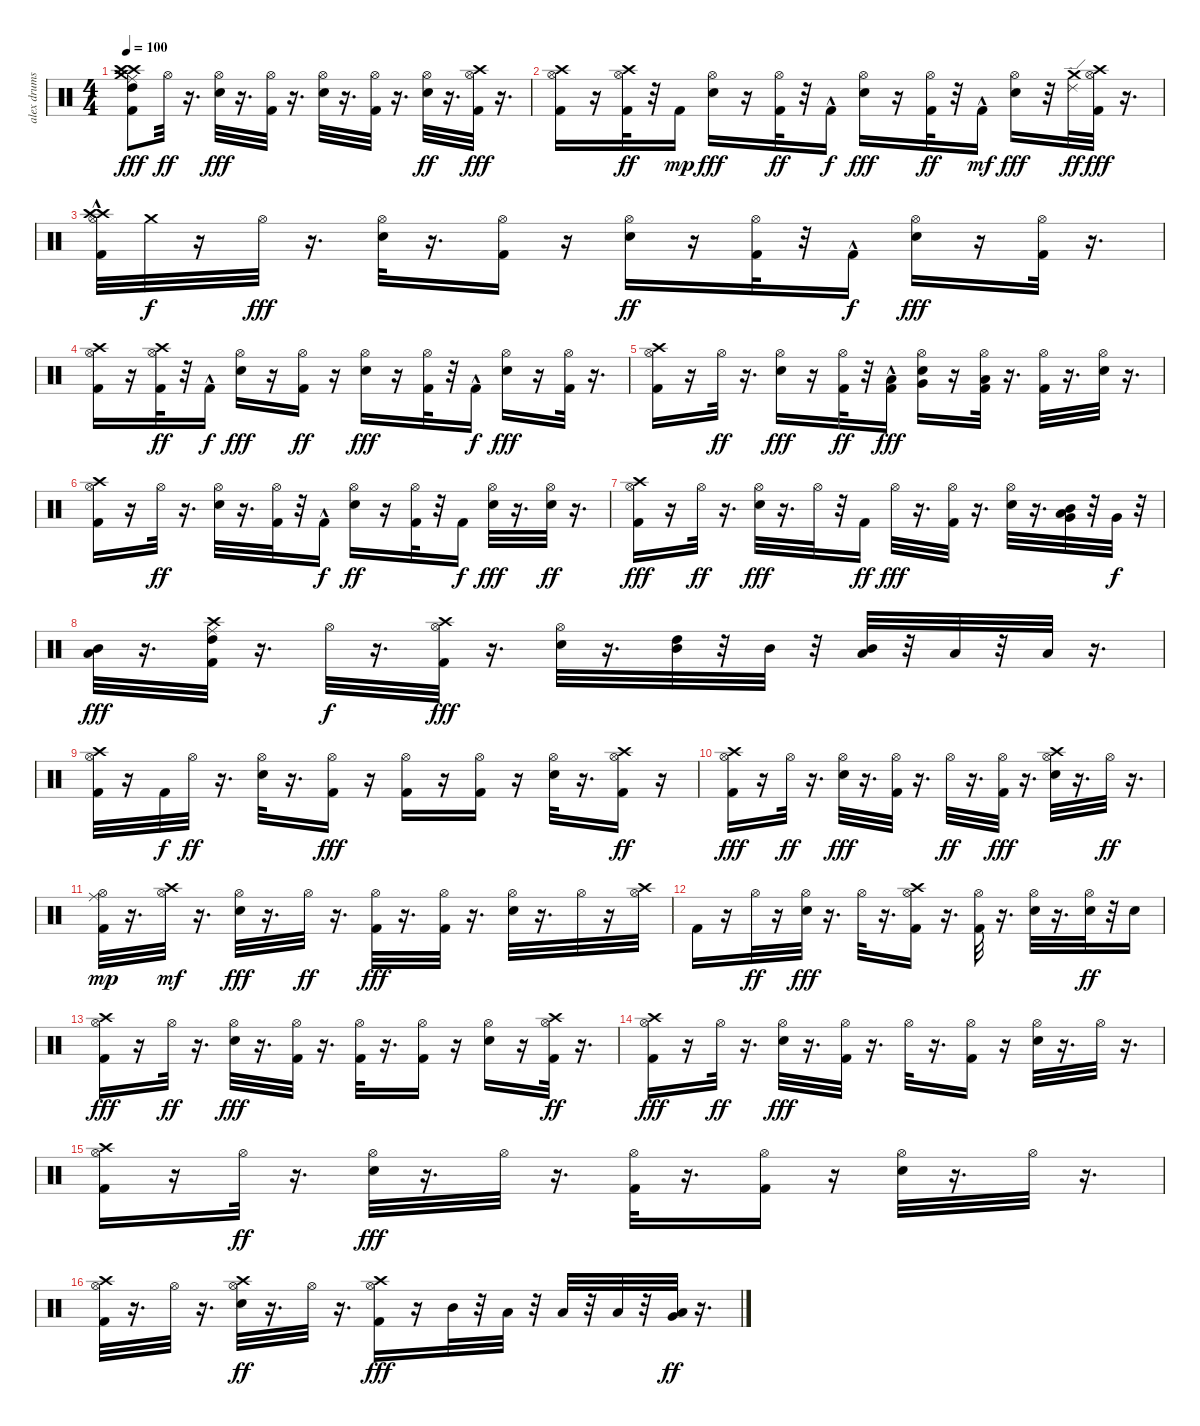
\track ("alex drums" "alex drums") {instrument percussion}
\staff {score}
\articulation defaults
\ts (4 4)
\tempo 100
\clef neutral
\ks c
("Crash high (hit)" "Crash medium (hit)" "High Tom (hit)" "Kick (hit) 2" "Ride (middle)" "Crash high (hit)").8{dy fff} "Hi-Hat (open)".32{dy ff} r.16{d} ("Hi-Hat (open)" "Electric Snare (hit)").32{dy fff} r.16{d} ("Kick (hit) 2" "Hi-Hat (open)").32 r.16{d} ("Electric Snare (hit)" "Hi-Hat (open)").32 r.16{d} ("Kick (hit) 2" "Hi-Hat (open)").32 r.16{d} ("Hi-Hat (open)" "Electric Snare (hit)").32{dy ff} r.16{d} ("Hi-Hat (open)" "Crash high (hit)" "Kick (hit) 2").32{dy fff} r.16{d} |
("Hi-Hat (open)" "Crash high (hit)" "Kick (hit) 2").16 r.16 ("Hi-Hat (open)" "Crash high (hit)" "Kick (hit) 2").32{dy ff} r.32 "Kick (hit) 2".16{dy mp} ("Hi-Hat (open)" "Electric Snare (hit)").16{dy fff} r.16 ("Kick (hit) 2" "Hi-Hat (open)").32{dy ff} r.32 "Kick (hit) 2"{hac}.16{dy f} ("Hi-Hat (open)" "Electric Snare (hit)").16{dy fff} r.16 ("Hi-Hat (open)" "Kick (hit) 2").32{dy ff} r.32 "Kick (hit) 2"{hac}.16{dy mf} ("Electric Snare (hit)" "Hi-Hat (open)").16{dy fff} r.32 ("Crash medium (hit)" "Ride (edge) 2").32{dy ff} ("Hi-Hat (open)" "Crash high (hit)" "Kick (hit) 2").32{dy fff} r.16{d} |
("Crash high (hit)" "Hi-Hat (open)" "Kick (hit) 2" "Crash high (hit)"{hac}).32 "Crash medium (hit)".32{dy f} r.16 "Hi-Hat (open)".32{dy fff} r.16{d} ("Hi-Hat (open)" "Electric Snare (hit)").32 r.16{d} ("Hi-Hat (open)" "Kick (hit) 2").16 r.16 ("Hi-Hat (open)" "Electric Snare (hit)").16{dy ff} r.16 ("Hi-Hat (open)" "Kick (hit) 2").32 r.32 "Kick (hit) 2"{hac}.16{dy f} ("Hi-Hat (open)" "Electric Snare (hit)").16{dy fff} r.16 ("Hi-Hat (open)" "Kick (hit) 2").32 r.16{d} |
("Kick (hit) 2" "Hi-Hat (open)" "Crash high (hit)").16 r.16 ("Crash high (hit)" "Kick (hit) 2" "Hi-Hat (open)").32{dy ff} r.32 "Kick (hit) 2"{hac}.16{dy f} ("Electric Snare (hit)" "Hi-Hat (open)").16{dy fff} r.16 ("Hi-Hat (open)" "Kick (hit) 2").16{dy ff} r.16 ("Hi-Hat (open)" "Electric Snare (hit)").16{dy fff} r.16 ("Hi-Hat (open)" "Kick (hit) 2").32 r.32 "Kick (hit) 2"{hac}.16{dy f} ("Hi-Hat (open)" "Electric Snare (hit)").16{dy fff} r.16 ("Hi-Hat (open)" "Kick (hit) 2").32 r.16{d} |
("Hi-Hat (open)" "Crash high (hit)" "Kick (hit) 2").16 r.16 "Hi-Hat (open)".32{dy ff} r.16{d} ("Hi-Hat (open)" "Electric Snare (hit)").16{dy fff} r.16 ("Hi-Hat (open)" "Kick (hit) 2").32{dy ff} r.32 ("Kick (hit) 2"{hac} "Low Tom (hit)").16{dy fff} ("Very Low Tom (hit)" "Hi-Hat (open)" "Electric Snare (hit)").16 r.16 ("Low Floor Tom (hit)" "Hi-Hat (open)" "Kick (hit) 2").32 r.16{d} ("Kick (hit) 2" "Hi-Hat (open)").32 r.16{d} ("Hi-Hat (open)" "Electric Snare (hit)").32 r.16{d} |
("Hi-Hat (open)" "Crash high (hit)" "Kick (hit) 2").16 r.16 "Hi-Hat (open)".32{dy ff} r.16{d} ("Hi-Hat (open)" "Electric Snare (hit)").32 r.16{d} ("Hi-Hat (open)" "Kick (hit) 2").32 r.32 "Kick (hit) 2"{hac}.16{dy f} ("Hi-Hat (open)" "Electric Snare (hit)").16{dy ff} r.16 ("Hi-Hat (open)" "Kick (hit) 2").32 r.32 "Kick (hit) 2".16{dy f} ("Hi-Hat (open)" "Electric Snare (hit)").32{dy fff} r.16{d} ("Hi-Hat (open)" "Electric Snare (hit)").32{dy ff} r.16{d} |
("Hi-Hat (open)" "Crash high (hit)" "Kick (hit) 2").16{dy fff} r.16 "Hi-Hat (open)".32{dy ff} r.16{d} ("Hi-Hat (open)" "Electric Snare (hit)").32{dy fff} r.16{d} "Hi-Hat (open)".32 r.32 "Kick (hit) 2".16{dy ff} "Hi-Hat (open)".32{dy fff} r.16{d} ("Kick (hit) 2" "Hi-Hat (open)").32 r.16{d} ("Hi-Hat (open)" "Electric Snare (hit)").32 r.16{d} ("Low Tom (hit)" "Very Low Tom (hit)" "Mid Tom (hit)").32 r.32 "Very Low Tom (hit)".32{dy f} r.32 |
("Mid Tom (hit)" "Low Floor Tom (hit)").32{dy fff} r.16{d} ("High Tom (hit)" "Ride (middle)" "Crash high (hit)" "Kick (hit) 2").32 r.16{d} "Hi-Hat (open)".32{dy f} r.16{d} ("Hi-Hat (open)" "Crash high (hit)" "Kick (hit) 2").32{dy fff} r.16{d} ("Electric Snare (hit)" "Hi-Hat (open)").32 r.16{d} ("Mid Tom (hit)" "High Tom (hit)").32 r.32 "Mid Tom (hit)".32 r.32 ("Mid Tom (hit)" "Low Tom (hit)").32 r.32 "Low Floor Tom (hit)".32 r.32 "Low Floor Tom (hit)".32 r.16{d} |
("Kick (hit) 2" "Crash high (hit)" "Hi-Hat (open)").32 r.16 "Kick (hit) 2".32{dy f} "Hi-Hat (open)".32{dy ff} r.16{d} ("Electric Snare (hit)" "Hi-Hat (open)").32 r.16{d} ("Kick (hit) 2" "Hi-Hat (open)").16{dy fff} r.16 ("Kick (hit) 2" "Hi-Hat (open)").16 r.16 ("Kick (hit) 2" "Hi-Hat (open)").16 r.16 ("Electric Snare (hit)" "Hi-Hat (open)").32 r.16{d} ("Kick (hit) 2" "Crash high (hit)" "Hi-Hat (open)").16{dy ff} r.16 |
("Kick (hit) 2" "Hi-Hat (open)" "Crash high (hit)").16{dy fff} r.16 "Hi-Hat (open)".32{dy ff} r.16{d} ("Electric Snare (hit)" "Hi-Hat (open)").32{dy fff} r.16{d} ("Kick (hit) 2" "Hi-Hat (open)").32 r.16{d} "Hi-Hat (open)".32{dy ff} r.16{d} ("Hi-Hat (open)" "Kick (hit) 2").32{dy fff} r.16{d} ("Hi-Hat (open)" "Crash high (hit)" "Electric Snare (hit)").32 r.16{d} "Hi-Hat (open)".32{dy ff} r.16{d} |
("Hi-Hat (open)" "Kick (hit) 2" "Ride (middle)").32{dy mp} r.16{d} ("Crash high (hit)" "Hi-Hat (open)").32{dy mf} r.16{d} ("Electric Snare (hit)" "Hi-Hat (open)").32{dy fff} r.16{d} "Hi-Hat (open)".32{dy ff} r.16{d} ("Hi-Hat (open)" "Kick (hit) 2").32{dy fff} r.16{d} ("Kick (hit) 2" "Hi-Hat (open)").32 r.16{d} ("Electric Snare (hit)" "Hi-Hat (open)").32 r.16{d} "Hi-Hat (open)".32 r.16 ("Crash high (hit)" "Hi-Hat (open)").32 |
"Kick (hit) 2".16 r.16 "Hi-Hat (open)".32{dy ff} r.16 ("Hi-Hat (open)" "Electric Snare (hit)").32{dy fff} r.16{d} "Hi-Hat (open)".32 r.16{d} ("Hi-Hat (open)" "Crash high (hit)" "Kick (hit) 2").16 r.16{d} ("Hi-Hat (open)" "Kick (hit) 2").32 r.16{d} ("Electric Snare (hit)" "Hi-Hat (open)").32 r.16{d} ("Electric Snare (hit)" "Hi-Hat (open)").32{dy ff} r.32 "Electric Snare (hit)".16 |
("Kick (hit) 2" "Crash high (hit)" "Hi-Hat (open)").16{dy fff} r.16 "Hi-Hat (open)".32{dy ff} r.16{d} ("Electric Snare (hit)" "Hi-Hat (open)").32{dy fff} r.16{d} ("Kick (hit) 2" "Hi-Hat (open)").32 r.16{d} ("Kick (hit) 2" "Hi-Hat (open)").32 r.16{d} ("Kick (hit) 2" "Hi-Hat (open)").16 r.16 ("Electric Snare (hit)" "Hi-Hat (open)").16 r.16 ("Kick (hit) 2" "Hi-Hat (open)" "Crash high (hit)").32{dy ff} r.16{d} |
("Kick (hit) 2" "Hi-Hat (open)" "Crash high (hit)").16{dy fff} r.16 "Hi-Hat (open)".32{dy ff} r.16{d} ("Electric Snare (hit)" "Hi-Hat (open)").32{dy fff} r.16{d} ("Hi-Hat (open)" "Kick (hit) 2").32 r.16{d} "Hi-Hat (open)".32 r.16{d} ("Hi-Hat (open)" "Kick (hit) 2").16 r.16 ("Electric Snare (hit)" "Hi-Hat (open)").32 r.16{d} "Hi-Hat (open)".32 r.16{d} |
("Kick (hit) 2" "Crash high (hit)" "Hi-Hat (open)").16 r.16 "Hi-Hat (open)".32{dy ff} r.16{d} ("Electric Snare (hit)" "Hi-Hat (open)").32{dy fff} r.16{d} "Hi-Hat (open)".32 r.16{d} ("Hi-Hat (open)" "Kick (hit) 2").32 r.16{d} ("Kick (hit) 2" "Hi-Hat (open)").16 r.16 ("Electric Snare (hit)" "Hi-Hat (open)").32 r.16{d} "Hi-Hat (open)".32 r.16{d} |
("Hi-Hat (open)" "Kick (hit) 2" "Crash high (hit)").32 r.16{d} "Hi-Hat (open)".32 r.16{d} ("Electric Snare (hit)" "Hi-Hat (open)" "Crash high (hit)").32{dy ff} r.16{d} "Hi-Hat (open)".32 r.16{d} ("Kick (hit) 2" "Hi-Hat (open)" "Crash high (hit)").16{dy fff} r.16 "Mid Tom (hit)".32 r.32 "Low Tom (hit)".32 r.32 "Low Tom (hit)".32 r.32 "Low Floor Tom (hit)".32 r.32 ("Low Floor Tom (hit)" "Very Low Tom (hit)").32{dy ff} r.16{d}
